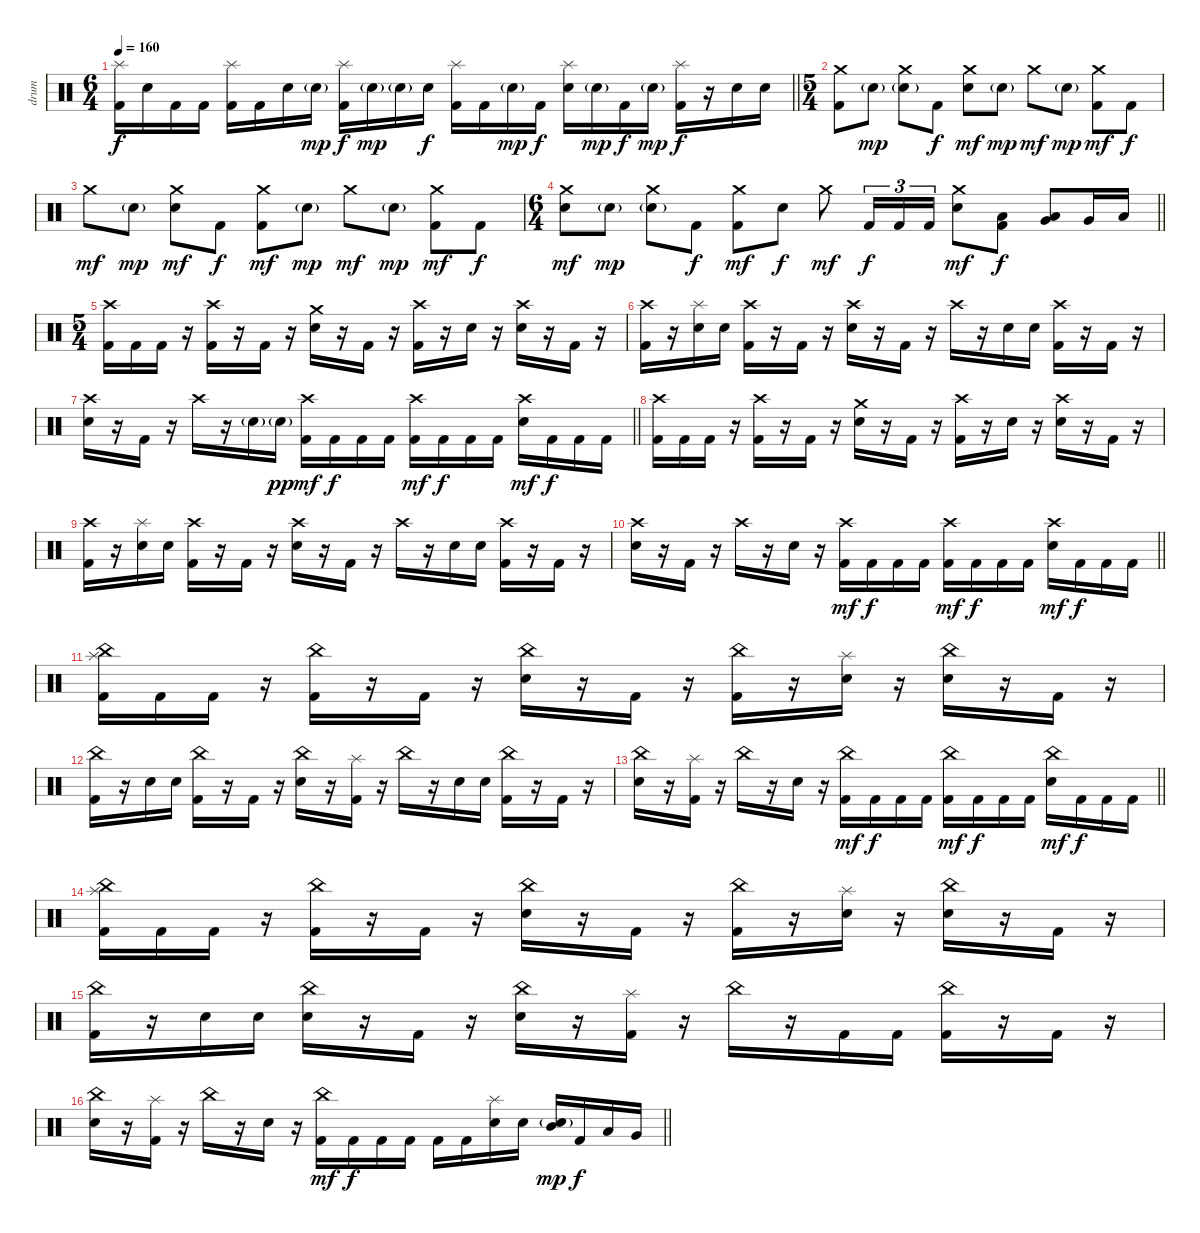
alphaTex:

\track ("drum" "drum") {instrument percussion}
\staff {score}
\articulation defaults
\ts (6 4)
\tempo 160
\clef neutral
\barLineRight lightlight
\ks c
("Splash (hit)" "Kick (hit) 2").16{dy f} "Electric Snare (hit)".16 "Kick (hit) 2".16 "Kick (hit) 2".16 ("Splash (hit)" "Kick (hit) 2").16 "Kick (hit) 2".16 "Electric Snare (hit)".16 "Electric Snare (hit)"{g}.16{dy mp} ("Splash (hit)" "Kick (hit) 2").16{dy f} "Electric Snare (hit)"{g}.16{dy mp} "Electric Snare (hit)"{g}.16 "Electric Snare (hit)".16{dy f} ("Splash (hit)" "Kick (hit) 2").16 "Kick (hit) 2".16 "Electric Snare (hit)"{g}.16{dy mp} "Kick (hit) 2".16{dy f} ("Splash (hit)" "Electric Snare (hit)").16 "Electric Snare (hit)"{g}.16{dy mp} "Kick (hit) 2".16{dy f} "Electric Snare (hit)"{g}.16{dy mp} ("Splash (hit)" "Kick (hit) 2").16{dy f} r.16 "Electric Snare (hit)".16 "Electric Snare (hit)".16 |
\ts (5 4)
\section ("" "")
("Crash medium (hit)" "Kick (hit) 2").8 "Electric Snare (hit)"{g}.8{dy mp} ("Crash medium (hit)" "Electric Snare (hit)"{g}).8 "Kick (hit) 2".8{dy f} ("Crash medium (hit)" "Electric Snare (hit)").8{dy mf} "Electric Snare (hit)"{g}.8{dy mp} "Crash medium (hit)".8{dy mf} "Electric Snare (hit)"{g}.8{dy mp} ("Crash medium (hit)" "Kick (hit) 2").8{dy mf} "Kick (hit) 2".8{dy f} |
"Crash medium (hit)".8{dy mf} "Electric Snare (hit)"{g}.8{dy mp} ("Crash medium (hit)" "Electric Snare (hit)").8{dy mf} "Kick (hit) 2".8{dy f} ("Crash medium (hit)" "Kick (hit) 2").8{dy mf} "Electric Snare (hit)"{g}.8{dy mp} "Crash medium (hit)".8{dy mf} "Electric Snare (hit)"{g}.8{dy mp} ("Crash medium (hit)" "Kick (hit) 2").8{dy mf} "Kick (hit) 2".8{dy f} |
\ts (6 4)
\barLineRight lightlight
("Crash medium (hit)" "Electric Snare (hit)").8{dy mf} "Electric Snare (hit)"{g}.8{dy mp} ("Crash medium (hit)" "Electric Snare (hit)"{g}).8 "Kick (hit) 2".8{dy f} ("Crash medium (hit)" "Kick (hit) 2").8{dy mf} "Electric Snare (hit)".8{dy f} "Crash medium (hit)".8{dy mf} "Kick (hit) 2".16{tu (3 2) dy f} "Kick (hit) 2".16{tu (3 2)} "Kick (hit) 2".16{tu (3 2)} ("Crash medium (hit)" "Electric Snare (hit)").8{dy mf} ("Low Tom (hit)" "Kick (hit) 2").8{dy f} ("Low Tom (hit)" "Very Low Tom (hit)").8 "Very Low Tom (hit)".16 "Low Floor Tom (hit)".16 |
\ts (5 4)
\section ("" "")
("Crash high (hit)" "Kick (hit) 2").16 "Kick (hit) 2".16 "Kick (hit) 2".16 r.16 ("Crash high (hit)" "Kick (hit) 2").16 r.16 "Kick (hit) 2".16 r.16 ("Crash medium (hit)" "Electric Snare (hit)").16 r.16 "Kick (hit) 2".16 r.16 ("Crash high (hit)" "Kick (hit) 2").16 r.16 "Electric Snare (hit)".16 r.16 ("Crash high (hit)" "Electric Snare (hit)").16 r.16 "Kick (hit) 2".16 r.16 |
("Crash high (hit)" "Kick (hit) 2").16 r.16 ("Splash (hit)" "Electric Snare (hit)").16 "Electric Snare (hit)".16 ("Crash high (hit)" "Kick (hit) 2").16 r.16 "Kick (hit) 2".16 r.16 ("Crash high (hit)" "Electric Snare (hit)").16 r.16 "Kick (hit) 2".16 r.16 "Crash high (hit)".16 r.16 "Electric Snare (hit)".16 "Electric Snare (hit)".16 ("Crash high (hit)" "Kick (hit) 2").16 r.16 "Kick (hit) 2".16 r.16 |
\barLineRight lightlight
("Crash high (hit)" "Electric Snare (hit)").16 r.16 "Kick (hit) 2".16 r.16 "Crash high (hit)".16 r.16 "Electric Snare (hit)"{g}.16 "Electric Snare (hit)"{g}.16{dy pp} ("Crash high (hit)" "Kick (hit) 2").16{dy mf} "Kick (hit) 2".16{dy f} "Kick (hit) 2".16 "Kick (hit) 2".16 ("Crash high (hit)" "Kick (hit) 2").16{dy mf} "Kick (hit) 2".16{dy f} "Kick (hit) 2".16 "Kick (hit) 2".16 ("Crash high (hit)" "Electric Snare (hit)").16{dy mf} "Kick (hit) 2".16{dy f} "Kick (hit) 2".16 "Kick (hit) 2".16 |
("Crash high (hit)" "Kick (hit) 2").16 "Kick (hit) 2".16 "Kick (hit) 2".16 r.16 ("Crash high (hit)" "Kick (hit) 2").16 r.16 "Kick (hit) 2".16 r.16 ("Crash medium (hit)" "Electric Snare (hit)").16 r.16 "Kick (hit) 2".16 r.16 ("Crash high (hit)" "Kick (hit) 2").16 r.16 "Electric Snare (hit)".16 r.16 ("Crash high (hit)" "Electric Snare (hit)").16 r.16 "Kick (hit) 2".16 r.16 |
("Crash high (hit)" "Kick (hit) 2").16 r.16 ("Splash (hit)" "Electric Snare (hit)").16 "Electric Snare (hit)".16 ("Crash high (hit)" "Kick (hit) 2").16 r.16 "Kick (hit) 2".16 r.16 ("Crash high (hit)" "Electric Snare (hit)").16 r.16 "Kick (hit) 2".16 r.16 "Crash high (hit)".16 r.16 "Electric Snare (hit)".16 "Electric Snare (hit)".16 ("Crash high (hit)" "Kick (hit) 2").16 r.16 "Kick (hit) 2".16 r.16 |
\barLineRight lightlight
("Crash high (hit)" "Electric Snare (hit)").16 r.16 "Kick (hit) 2".16 r.16 "Crash high (hit)".16 r.16 "Electric Snare (hit)".16 r.16 ("Crash high (hit)" "Kick (hit) 2").16{dy mf} "Kick (hit) 2".16{dy f} "Kick (hit) 2".16 "Kick (hit) 2".16 ("Crash high (hit)" "Kick (hit) 2").16{dy mf} "Kick (hit) 2".16{dy f} "Kick (hit) 2".16 "Kick (hit) 2".16 ("Crash high (hit)" "Electric Snare (hit)").16{dy mf} "Kick (hit) 2".16{dy f} "Kick (hit) 2".16 "Kick (hit) 2".16 |
("China (hit)" "Splash (hit)" "Kick (hit) 2").16 "Kick (hit) 2".16 "Kick (hit) 2".16 r.16 ("China (hit)" "Kick (hit) 2").16 r.16 "Kick (hit) 2".16 r.16 ("China (hit)" "Electric Snare (hit)").16 r.16 "Kick (hit) 2".16 r.16 ("China (hit)" "Kick (hit) 2").16 r.16 ("Splash (hit)" "Electric Snare (hit)").16 r.16 ("China (hit)" "Electric Snare (hit)").16 r.16 "Kick (hit) 2".16 r.16 |
("China (hit)" "Kick (hit) 2").16 r.16 "Electric Snare (hit)".16 "Electric Snare (hit)".16 ("China (hit)" "Kick (hit) 2").16 r.16 "Kick (hit) 2".16 r.16 ("China (hit)" "Electric Snare (hit)").16 r.16 ("Splash (hit)" "Kick (hit) 2").16 r.16 "China (hit)".16 r.16 "Electric Snare (hit)".16 "Electric Snare (hit)".16 ("China (hit)" "Kick (hit) 2").16 r.16 "Kick (hit) 2".16 r.16 |
\barLineRight lightlight
("China (hit)" "Electric Snare (hit)").16 r.16 ("Splash (hit)" "Kick (hit) 2").16 r.16 "China (hit)".16 r.16 "Electric Snare (hit)".16 r.16 ("China (hit)" "Kick (hit) 2").16{dy mf} "Kick (hit) 2".16{dy f} "Kick (hit) 2".16 "Kick (hit) 2".16 ("China (hit)" "Kick (hit) 2").16{dy mf} "Kick (hit) 2".16{dy f} "Kick (hit) 2".16 "Kick (hit) 2".16 ("China (hit)" "Electric Snare (hit)").16{dy mf} "Kick (hit) 2".16{dy f} "Kick (hit) 2".16 "Kick (hit) 2".16 |
("China (hit)" "Splash (hit)" "Kick (hit) 2").16 "Kick (hit) 2".16 "Kick (hit) 2".16 r.16 ("China (hit)" "Kick (hit) 2").16 r.16 "Kick (hit) 2".16 r.16 ("China (hit)" "Electric Snare (hit)").16 r.16 "Kick (hit) 2".16 r.16 ("China (hit)" "Kick (hit) 2").16 r.16 ("Splash (hit)" "Electric Snare (hit)").16 r.16 ("China (hit)" "Electric Snare (hit)").16 r.16 "Kick (hit) 2".16 r.16 |
("China (hit)" "Kick (hit) 2").16 r.16 "Electric Snare (hit)".16 "Electric Snare (hit)".16 ("China (hit)" "Electric Snare (hit)").16 r.16 "Kick (hit) 2".16 r.16 ("China (hit)" "Electric Snare (hit)").16 r.16 ("Splash (hit)" "Kick (hit) 2").16 r.16 "China (hit)".16 r.16 "Kick (hit) 2".16 "Kick (hit) 2".16 ("China (hit)" "Kick (hit) 2").16 r.16 "Kick (hit) 2".16 r.16 |
\barLineRight lightlight
("China (hit)" "Electric Snare (hit)").16 r.16 ("Splash (hit)" "Kick (hit) 2").16 r.16 "China (hit)".16 r.16 "Electric Snare (hit)".16 r.16 ("China (hit)" "Kick (hit) 2").16{dy mf} "Kick (hit) 2".16{dy f} "Kick (hit) 2".16 "Kick (hit) 2".16 "Kick (hit) 2".16 "Kick (hit) 2".16 ("Splash (hit)" "Electric Snare (hit)").16 "Electric Snare (hit)".16 ("Mid Tom (hit)" "Electric Snare (hit)"{g}).16{dy mp} "Kick (hit) 2".16{dy f} "Low Tom (hit)".16 "Very Low Tom (hit)".16
